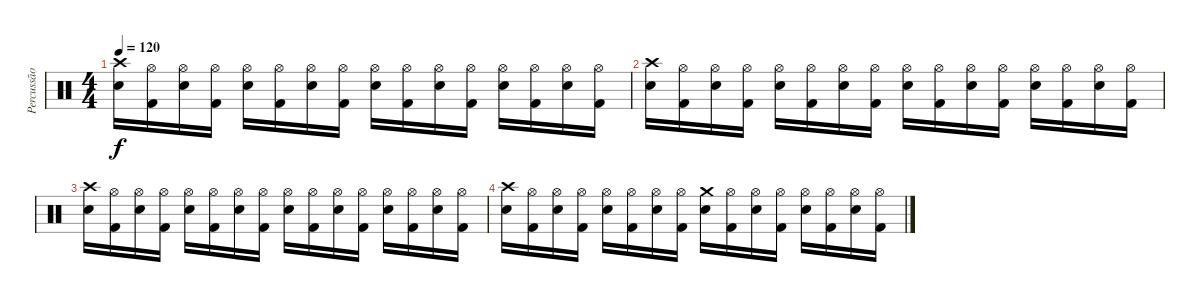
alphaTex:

\track ("Percussão" "Percussão") {instrument percussion}
\staff {score}
\articulation defaults
\ts (4 4)
\tempo 120
\clef neutral
\ks c
("Crash high (hit)" "Snare (hit) 2").16{dy f} ("Hi-Hat (open)" "Kick (hit) 2").16 ("Hi-Hat (open)" "Snare (hit) 2").16 ("Hi-Hat (open)" "Kick (hit) 2").16 ("Hi-Hat (open)" "Snare (hit) 2").16 ("Hi-Hat (open)" "Kick (hit) 2").16 ("Hi-Hat (open)" "Snare (hit) 2").16 ("Hi-Hat (open)" "Kick (hit) 2").16 ("Hi-Hat (open)" "Snare (hit) 2").16 ("Hi-Hat (open)" "Kick (hit) 2").16 ("Hi-Hat (open)" "Snare (hit) 2").16 ("Hi-Hat (open)" "Kick (hit) 2").16 ("Hi-Hat (open)" "Snare (hit) 2").16 ("Hi-Hat (open)" "Kick (hit) 2").16 ("Hi-Hat (open)" "Snare (hit) 2").16 ("Hi-Hat (open)" "Kick (hit) 2").16 |
("Crash high (hit)" "Snare (hit) 2").16 ("Hi-Hat (open)" "Kick (hit) 2").16 ("Hi-Hat (open)" "Snare (hit) 2").16 ("Hi-Hat (open)" "Kick (hit) 2").16 ("Hi-Hat (open)" "Snare (hit) 2").16 ("Hi-Hat (open)" "Kick (hit) 2").16 ("Hi-Hat (open)" "Snare (hit) 2").16 ("Hi-Hat (open)" "Kick (hit) 2").16 ("Hi-Hat (open)" "Snare (hit) 2").16 ("Hi-Hat (open)" "Kick (hit) 2").16 ("Hi-Hat (open)" "Snare (hit) 2").16 ("Hi-Hat (open)" "Kick (hit) 2").16 ("Hi-Hat (open)" "Snare (hit) 2").16 ("Hi-Hat (open)" "Kick (hit) 2").16 ("Hi-Hat (open)" "Snare (hit) 2").16 ("Hi-Hat (open)" "Kick (hit) 2").16 |
("Crash high (hit)" "Snare (hit) 2").16 ("Hi-Hat (open)" "Kick (hit) 2").16 ("Hi-Hat (open)" "Snare (hit) 2").16 ("Hi-Hat (open)" "Kick (hit) 2").16 ("Hi-Hat (open)" "Snare (hit) 2").16 ("Hi-Hat (open)" "Kick (hit) 2").16 ("Hi-Hat (open)" "Snare (hit) 2").16 ("Hi-Hat (open)" "Kick (hit) 2").16 ("Hi-Hat (open)" "Snare (hit) 2").16 ("Hi-Hat (open)" "Kick (hit) 2").16 ("Hi-Hat (open)" "Snare (hit) 2").16 ("Hi-Hat (open)" "Kick (hit) 2").16 ("Hi-Hat (open)" "Snare (hit) 2").16 ("Hi-Hat (open)" "Kick (hit) 2").16 ("Hi-Hat (open)" "Snare (hit) 2").16 ("Hi-Hat (open)" "Kick (hit) 2").16 |
("Crash high (hit)" "Snare (hit) 2").16 ("Hi-Hat (open)" "Kick (hit) 2").16 ("Hi-Hat (open)" "Snare (hit) 2").16 ("Hi-Hat (open)" "Kick (hit) 2").16 ("Hi-Hat (open)" "Snare (hit) 2").16 ("Hi-Hat (open)" "Kick (hit) 2").16 ("Hi-Hat (open)" "Snare (hit) 2").16 ("Hi-Hat (open)" "Kick (hit) 2").16 ("Crash medium (hit)" "Snare (hit) 2").16 ("Hi-Hat (open)" "Kick (hit) 2").16 ("Hi-Hat (open)" "Snare (hit) 2").16 ("Hi-Hat (open)" "Kick (hit) 2").16 ("Hi-Hat (open)" "Snare (hit) 2").16 ("Hi-Hat (open)" "Kick (hit) 2").16 ("Hi-Hat (open)" "Snare (hit) 2").16 ("Hi-Hat (open)" "Kick (hit) 2").16
